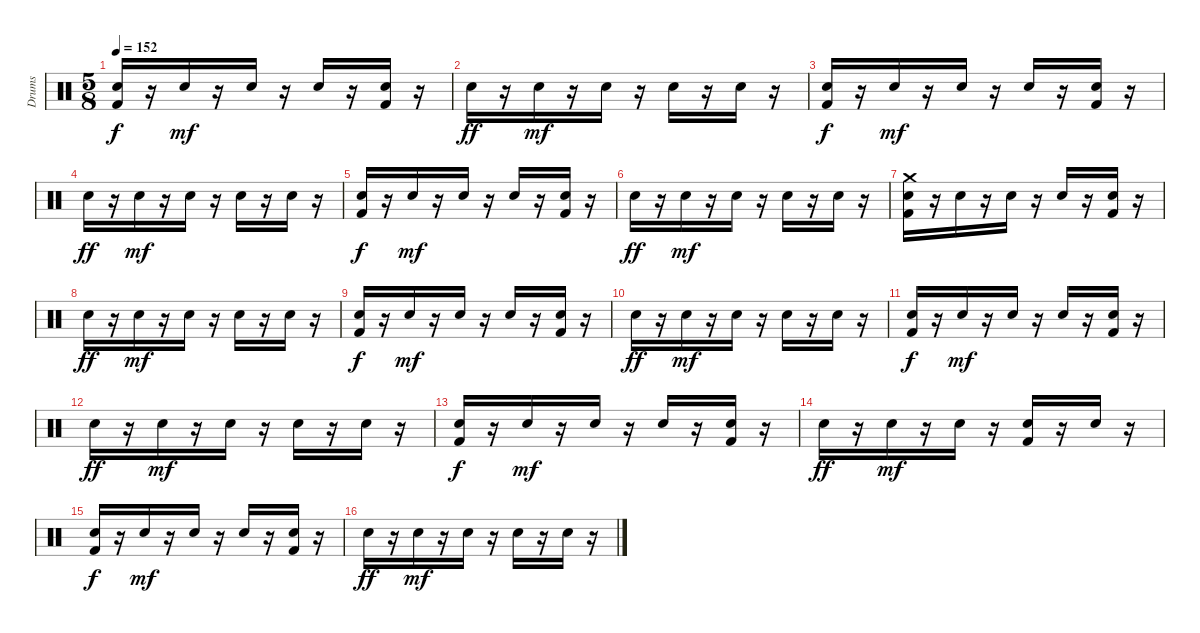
\track ("Drums" "Drums") {instrument percussion}
\staff {score}
\articulation defaults
\ts (5 8)
\tempo 152
\clef neutral
\ks c
("Snare (hit) 2" "Kick (hit) 2").16{dy f} r.16 "Snare (hit) 2".16{dy mf} r.16 "Snare (hit) 2".16 r.16 "Snare (hit) 2".16 r.16 ("Snare (hit) 2" "Kick (hit) 2").16 r.16 |
"Snare (hit) 2".16{dy ff} r.16 "Snare (hit) 2".16{dy mf} r.16 "Snare (hit) 2".16 r.16 "Snare (hit) 2".16 r.16 "Snare (hit) 2".16 r.16 |
("Snare (hit) 2" "Kick (hit) 2").16{dy f} r.16 "Snare (hit) 2".16{dy mf} r.16 "Snare (hit) 2".16 r.16 "Snare (hit) 2".16 r.16 ("Snare (hit) 2" "Kick (hit) 2").16 r.16 |
"Snare (hit) 2".16{dy ff} r.16 "Snare (hit) 2".16{dy mf} r.16 "Snare (hit) 2".16 r.16 "Snare (hit) 2".16 r.16 "Snare (hit) 2".16 r.16 |
("Snare (hit) 2" "Kick (hit) 2").16{dy f} r.16 "Snare (hit) 2".16{dy mf} r.16 "Snare (hit) 2".16 r.16 "Snare (hit) 2".16 r.16 ("Snare (hit) 2" "Kick (hit) 2").16 r.16 |
"Snare (hit) 2".16{dy ff} r.16 "Snare (hit) 2".16{dy mf} r.16 "Snare (hit) 2".16 r.16 "Snare (hit) 2".16 r.16 "Snare (hit) 2".16 r.16 |
("Crash medium (hit)" "Snare (hit) 2" "Kick (hit) 2").16 r.16 "Snare (hit) 2".16 r.16 "Snare (hit) 2".16 r.16 "Snare (hit) 2".16 r.16 ("Snare (hit) 2" "Kick (hit) 2").16 r.16 |
"Snare (hit) 2".16{dy ff} r.16 "Snare (hit) 2".16{dy mf} r.16 "Snare (hit) 2".16 r.16 "Snare (hit) 2".16 r.16 "Snare (hit) 2".16 r.16 |
("Snare (hit) 2" "Kick (hit) 2").16{dy f} r.16 "Snare (hit) 2".16{dy mf} r.16 "Snare (hit) 2".16 r.16 "Snare (hit) 2".16 r.16 ("Snare (hit) 2" "Kick (hit) 2").16 r.16 |
"Snare (hit) 2".16{dy ff} r.16 "Snare (hit) 2".16{dy mf} r.16 "Snare (hit) 2".16 r.16 "Snare (hit) 2".16 r.16 "Snare (hit) 2".16 r.16 |
("Snare (hit) 2" "Kick (hit) 2").16{dy f} r.16 "Snare (hit) 2".16{dy mf} r.16 "Snare (hit) 2".16 r.16 "Snare (hit) 2".16 r.16 ("Snare (hit) 2" "Kick (hit) 2").16 r.16 |
"Snare (hit) 2".16{dy ff} r.16 "Snare (hit) 2".16{dy mf} r.16 "Snare (hit) 2".16 r.16 "Snare (hit) 2".16 r.16 "Snare (hit) 2".16 r.16 |
("Snare (hit) 2" "Kick (hit) 2").16{dy f} r.16 "Snare (hit) 2".16{dy mf} r.16 "Snare (hit) 2".16 r.16 "Snare (hit) 2".16 r.16 ("Snare (hit) 2" "Kick (hit) 2").16 r.16 |
"Snare (hit) 2".16{dy ff} r.16 "Snare (hit) 2".16{dy mf} r.16 "Snare (hit) 2".16 r.16 ("Snare (hit) 2" "Kick (hit) 2").16 r.16 "Snare (hit) 2".16 r.16 |
("Snare (hit) 2" "Kick (hit) 2").16{dy f} r.16 "Snare (hit) 2".16{dy mf} r.16 "Snare (hit) 2".16 r.16 "Snare (hit) 2".16 r.16 ("Snare (hit) 2" "Kick (hit) 2").16 r.16 |
"Snare (hit) 2".16{dy ff} r.16 "Snare (hit) 2".16{dy mf} r.16 "Snare (hit) 2".16 r.16 "Snare (hit) 2".16 r.16 "Snare (hit) 2".16 r.16
